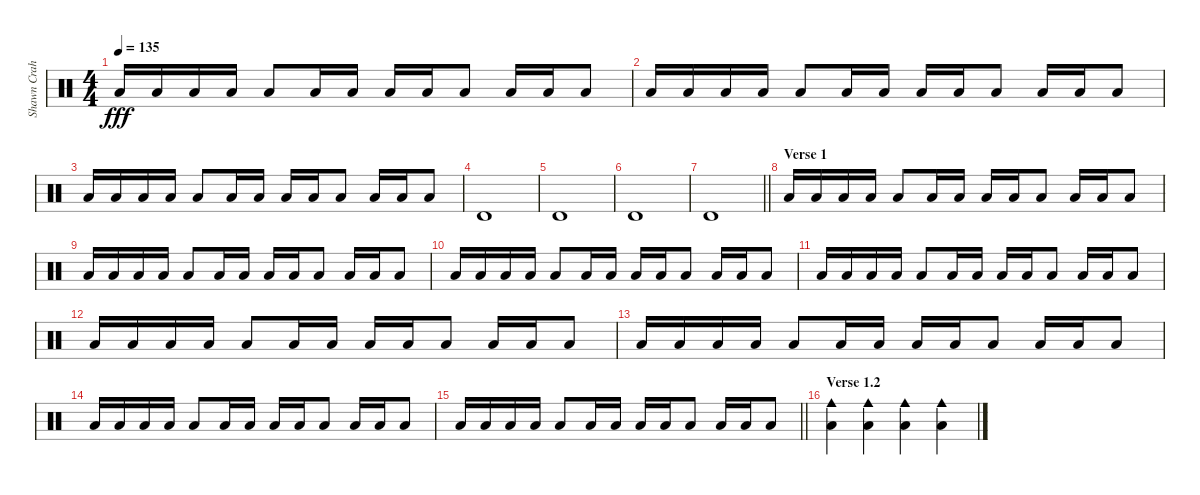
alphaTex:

\track ("Shawn Crahan" "Shawn Crah") {instrument percussion}
\staff {score}
\articulation defaults
\ts (4 4)
\tempo 135
\clef neutral
\ks c "Low Floor Tom (hit)".16{dy fff} "Low Floor Tom (hit)".16 "Low Floor Tom (hit)".16 "Low Floor Tom (hit)".16 "Low Floor Tom (hit)".8 "Low Floor Tom (hit)".16 "Low Floor Tom (hit)".16 "Low Floor Tom (hit)".16 "Low Floor Tom (hit)".16 "Low Floor Tom (hit)".8 "Low Floor Tom (hit)".16 "Low Floor Tom (hit)".16 "Low Floor Tom (hit)".8
|
"Low Floor Tom (hit)".16 "Low Floor Tom (hit)".16 "Low Floor Tom (hit)".16 "Low Floor Tom (hit)".16 "Low Floor Tom (hit)".8 "Low Floor Tom (hit)".16 "Low Floor Tom (hit)".16 "Low Floor Tom (hit)".16 "Low Floor Tom (hit)".16 "Low Floor Tom (hit)".8 "Low Floor Tom (hit)".16 "Low Floor Tom (hit)".16 "Low Floor Tom (hit)".8 |
"Low Floor Tom (hit)".16 "Low Floor Tom (hit)".16 "Low Floor Tom (hit)".16 "Low Floor Tom (hit)".16 "Low Floor Tom (hit)".8 "Low Floor Tom (hit)".16 "Low Floor Tom (hit)".16 "Low Floor Tom (hit)".16 "Low Floor Tom (hit)".16 "Low Floor Tom (hit)".8 "Low Floor Tom (hit)".16 "Low Floor Tom (hit)".16 "Low Floor Tom (hit)".8 |
"Timbale high (hit)".1 |
"Timbale high (hit)".1 |
"Timbale high (hit)".1 |
\barLineRight lightlight "Timbale high (hit)".1
|
\section ("" "Verse 1")
"Low Floor Tom (hit)".16 "Low Floor Tom (hit)".16 "Low Floor Tom (hit)".16 "Low Floor Tom (hit)".16 "Low Floor Tom (hit)".8 "Low Floor Tom (hit)".16 "Low Floor Tom (hit)".16 "Low Floor Tom (hit)".16 "Low Floor Tom (hit)".16 "Low Floor Tom (hit)".8 "Low Floor Tom (hit)".16 "Low Floor Tom (hit)".16 "Low Floor Tom (hit)".8 |
"Low Floor Tom (hit)".16 "Low Floor Tom (hit)".16 "Low Floor Tom (hit)".16 "Low Floor Tom (hit)".16 "Low Floor Tom (hit)".8 "Low Floor Tom (hit)".16 "Low Floor Tom (hit)".16 "Low Floor Tom (hit)".16 "Low Floor Tom (hit)".16 "Low Floor Tom (hit)".8 "Low Floor Tom (hit)".16 "Low Floor Tom (hit)".16 "Low Floor Tom (hit)".8 |
"Low Floor Tom (hit)".16 "Low Floor Tom (hit)".16 "Low Floor Tom (hit)".16 "Low Floor Tom (hit)".16 "Low Floor Tom (hit)".8 "Low Floor Tom (hit)".16 "Low Floor Tom (hit)".16 "Low Floor Tom (hit)".16 "Low Floor Tom (hit)".16 "Low Floor Tom (hit)".8 "Low Floor Tom (hit)".16 "Low Floor Tom (hit)".16 "Low Floor Tom (hit)".8 |
"Low Floor Tom (hit)".16 "Low Floor Tom (hit)".16 "Low Floor Tom (hit)".16 "Low Floor Tom (hit)".16 "Low Floor Tom (hit)".8 "Low Floor Tom (hit)".16 "Low Floor Tom (hit)".16 "Low Floor Tom (hit)".16 "Low Floor Tom (hit)".16 "Low Floor Tom (hit)".8 "Low Floor Tom (hit)".16 "Low Floor Tom (hit)".16 "Low Floor Tom (hit)".8 |
"Low Floor Tom (hit)".16 "Low Floor Tom (hit)".16 "Low Floor Tom (hit)".16 "Low Floor Tom (hit)".16 "Low Floor Tom (hit)".8 "Low Floor Tom (hit)".16 "Low Floor Tom (hit)".16 "Low Floor Tom (hit)".16 "Low Floor Tom (hit)".16 "Low Floor Tom (hit)".8 "Low Floor Tom (hit)".16 "Low Floor Tom (hit)".16 "Low Floor Tom (hit)".8 |
"Low Floor Tom (hit)".16 "Low Floor Tom (hit)".16 "Low Floor Tom (hit)".16 "Low Floor Tom (hit)".16 "Low Floor Tom (hit)".8 "Low Floor Tom (hit)".16 "Low Floor Tom (hit)".16 "Low Floor Tom (hit)".16 "Low Floor Tom (hit)".16 "Low Floor Tom (hit)".8 "Low Floor Tom (hit)".16 "Low Floor Tom (hit)".16 "Low Floor Tom (hit)".8 |
"Low Floor Tom (hit)".16 "Low Floor Tom (hit)".16 "Low Floor Tom (hit)".16 "Low Floor Tom (hit)".16 "Low Floor Tom (hit)".8 "Low Floor Tom (hit)".16 "Low Floor Tom (hit)".16 "Low Floor Tom (hit)".16 "Low Floor Tom (hit)".16 "Low Floor Tom (hit)".8 "Low Floor Tom (hit)".16 "Low Floor Tom (hit)".16 "Low Floor Tom (hit)".8 |
\barLineRight lightlight "Low Floor Tom (hit)".16 "Low Floor Tom (hit)".16 "Low Floor Tom (hit)".16 "Low Floor Tom (hit)".16 "Low Floor Tom (hit)".8 "Low Floor Tom (hit)".16 "Low Floor Tom (hit)".16 "Low Floor Tom (hit)".16 "Low Floor Tom (hit)".16 "Low Floor Tom (hit)".8 "Low Floor Tom (hit)".16 "Low Floor Tom (hit)".16 "Low Floor Tom (hit)".8
|
\section ("" "Verse 1.2")
("Cowbell medium (hit)" "Low Floor Tom (hit)").4 ("Cowbell medium (hit)" "Low Floor Tom (hit)").4 ("Cowbell medium (hit)" "Low Floor Tom (hit)").4 ("Cowbell medium (hit)" "Low Floor Tom (hit)").4
